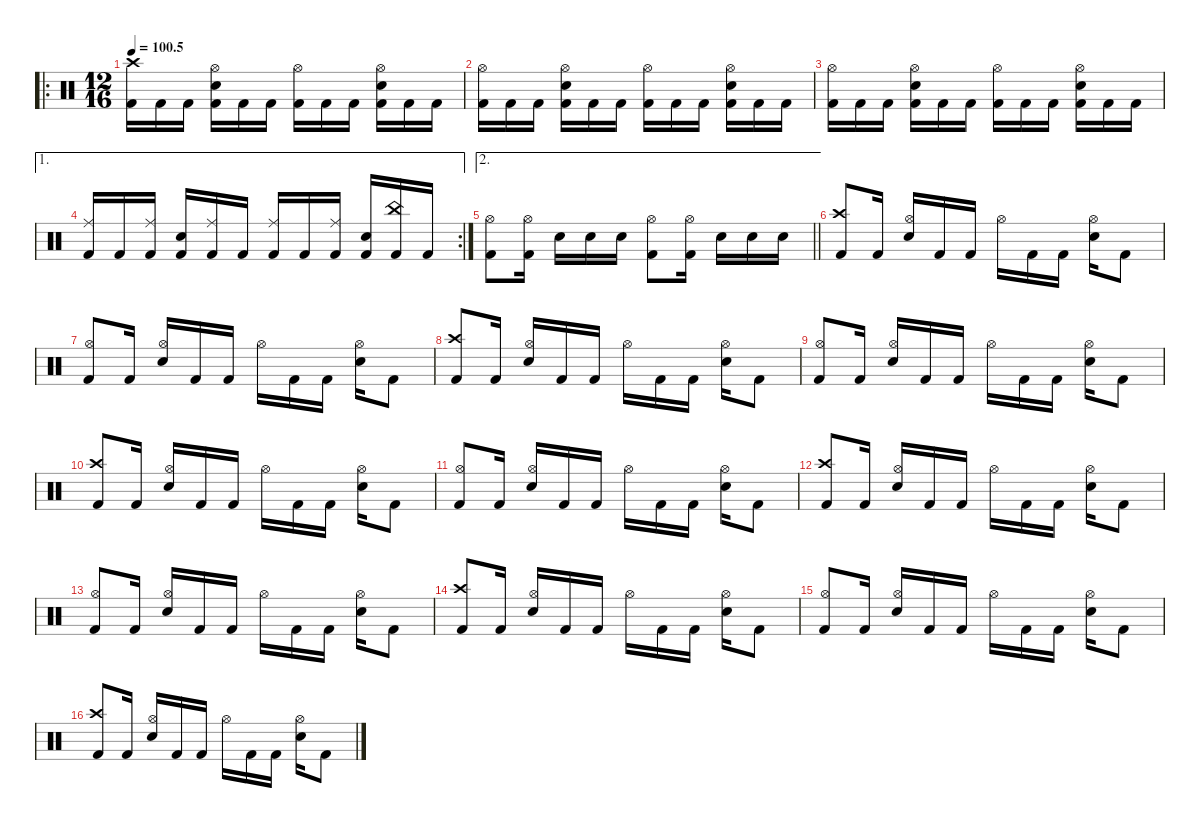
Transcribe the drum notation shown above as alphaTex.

\defaultSystemsLayout 4
\hideDynamics
\bracketExtendMode nobrackets
\singleTrackTrackNamePolicy hidden
\multiTrackTrackNamePolicy hidden
\firstSystemTrackNameMode fullname
\firstSystemTrackNameOrientation horizontal
\otherSystemsTrackNameOrientation horizontal
\track ("Drums" "drm.") {instrument percussion}
\staff {score}
\articulation defaults
\ro
\ts (12 16)
\tempo
100.5
\accidentals auto
\clef neutral
\ottava regular
\simile none
\ks c
("Crash high (hit)" "Kick (hit) 2").16{dy f beam Down} "Kick (hit) 2".16{beam Down} "Kick (hit) 2".16{beam Down} ("Hi-Hat (open)" "Snare (hit) 2" "Kick (hit) 2").16{beam Down} "Kick (hit) 2".16{beam Down} "Kick (hit) 2".16{beam Down} ("Hi-Hat (open)" "Kick (hit) 2").16{beam Down} "Kick (hit) 2".16{beam Down} "Kick (hit) 2".16{beam Down} ("Hi-Hat (open)" "Snare (hit) 2" "Kick (hit) 2").16{beam Down} "Kick (hit) 2".16{beam Down} "Kick (hit) 2".16{beam Down} |
("Hi-Hat (open)" "Kick (hit) 2").16{beam Down} "Kick (hit) 2".16{beam Down} "Kick (hit) 2".16{beam Down} ("Hi-Hat (open)" "Snare (hit) 2" "Kick (hit) 2").16{beam Down} "Kick (hit) 2".16{beam Down} "Kick (hit) 2".16{beam Down} ("Hi-Hat (open)" "Kick (hit) 2").16{beam Down} "Kick (hit) 2".16{beam Down} "Kick (hit) 2".16{beam Down} ("Hi-Hat (open)" "Snare (hit) 2" "Kick (hit) 2").16{beam Down} "Kick (hit) 2".16{beam Down} "Kick (hit) 2".16{beam Down} |
("Hi-Hat (open)" "Kick (hit) 2").16{beam Down} "Kick (hit) 2".16{beam Down} "Kick (hit) 2".16{beam Down} ("Hi-Hat (open)" "Snare (hit) 2" "Kick (hit) 2").16{beam Down} "Kick (hit) 2".16{beam Down} "Kick (hit) 2".16{beam Down} ("Hi-Hat (open)" "Kick (hit) 2").16{beam Down} "Kick (hit) 2".16{beam Down} "Kick (hit) 2".16{beam Down} ("Hi-Hat (open)" "Snare (hit) 2" "Kick (hit) 2").16{beam Down} "Kick (hit) 2".16{beam Down} "Kick (hit) 2".16{beam Down} |
\ae 1
\rc 2
("Ride (middle)" "Kick (hit) 2").16{beam Up} "Kick (hit) 2".16{beam Up} ("Ride (middle)" "Kick (hit) 2").16{beam Up} ("Snare (hit) 2" "Kick (hit) 2").16{beam Up} ("Ride (middle)" "Kick (hit) 2").16{beam Up} "Kick (hit) 2".16{beam Up} ("Ride (middle)" "Kick (hit) 2").16{beam Up} "Kick (hit) 2".16{beam Up} ("Ride (middle)" "Kick (hit) 2").16{beam Up} ("Snare (hit) 2" "Kick (hit) 2").16{beam Up} ("China (hit)" "Kick (hit) 2").16{beam Up} "Kick (hit) 2".16{beam Up} |
\ae 2
\barLineRight lightlight
("Hi-Hat (open)" "Kick (hit) 2").8{beam Down} ("Hi-Hat (open)" "Kick (hit) 2").16{beam Down} "Snare (hit) 2".16{beam Down} "Snare (hit) 2".16{beam Down} "Snare (hit) 2".16{beam Down} ("Hi-Hat (open)" "Kick (hit) 2").8{beam Down} ("Hi-Hat (open)" "Kick (hit) 2").16{beam Down} "Snare (hit) 2".16{beam Down} "Snare (hit) 2".16{beam Down} "Snare (hit) 2".16{beam Down} |
("Crash high (hit)" "Kick (hit) 2").8{beam Up} "Kick (hit) 2".16{dy ff beam Up} ("Hi-Hat (open)" "Snare (hit) 2").16{dy f beam Up} "Kick (hit) 2".16{dy ff beam Up} "Kick (hit) 2".16{beam Up} "Hi-Hat (open)".16{dy f beam Down} "Kick (hit) 2".16{dy ff beam Down} "Kick (hit) 2".16{beam Down} ("Hi-Hat (open)" "Snare (hit) 2").16{dy f beam Down} "Kick (hit) 2".8{dy ff beam Down} |
("Hi-Hat (open)" "Kick (hit) 2").8{dy f beam Up} "Kick (hit) 2".16{dy ff beam Up} ("Hi-Hat (open)" "Snare (hit) 2").16{dy f beam Up} "Kick (hit) 2".16{dy ff beam Up} "Kick (hit) 2".16{beam Up} "Hi-Hat (open)".16{dy f beam Down} "Kick (hit) 2".16{dy ff beam Down} "Kick (hit) 2".16{beam Down} ("Hi-Hat (open)" "Snare (hit) 2").16{dy f beam Down} "Kick (hit) 2".8{dy ff beam Down} |
("Crash high (hit)" "Kick (hit) 2").8{dy f beam Up} "Kick (hit) 2".16{dy ff beam Up} ("Hi-Hat (open)" "Snare (hit) 2").16{dy f beam Up} "Kick (hit) 2".16{dy ff beam Up} "Kick (hit) 2".16{beam Up} "Hi-Hat (open)".16{dy f beam Down} "Kick (hit) 2".16{dy ff beam Down} "Kick (hit) 2".16{beam Down} ("Hi-Hat (open)" "Snare (hit) 2").16{dy f beam Down} "Kick (hit) 2".8{dy ff beam Down} |
("Hi-Hat (open)" "Kick (hit) 2").8{dy f beam Up} "Kick (hit) 2".16{dy ff beam Up} ("Hi-Hat (open)" "Snare (hit) 2").16{dy f beam Up} "Kick (hit) 2".16{dy ff beam Up} "Kick (hit) 2".16{beam Up} "Hi-Hat (open)".16{dy f beam Down} "Kick (hit) 2".16{dy ff beam Down} "Kick (hit) 2".16{beam Down} ("Hi-Hat (open)" "Snare (hit) 2").16{dy f beam Down} "Kick (hit) 2".8{dy ff beam Down} |
("Crash high (hit)" "Kick (hit) 2").8{dy f beam Up} "Kick (hit) 2".16{dy ff beam Up} ("Hi-Hat (open)" "Snare (hit) 2").16{dy f beam Up} "Kick (hit) 2".16{dy ff beam Up} "Kick (hit) 2".16{beam Up} "Hi-Hat (open)".16{dy f beam Down} "Kick (hit) 2".16{dy ff beam Down} "Kick (hit) 2".16{beam Down} ("Hi-Hat (open)" "Snare (hit) 2").16{dy f beam Down} "Kick (hit) 2".8{dy ff beam Down} |
("Hi-Hat (open)" "Kick (hit) 2").8{dy f beam Up} "Kick (hit) 2".16{dy ff beam Up} ("Hi-Hat (open)" "Snare (hit) 2").16{dy f beam Up} "Kick (hit) 2".16{dy ff beam Up} "Kick (hit) 2".16{beam Up} "Hi-Hat (open)".16{dy f beam Down} "Kick (hit) 2".16{dy ff beam Down} "Kick (hit) 2".16{beam Down} ("Hi-Hat (open)" "Snare (hit) 2").16{dy f beam Down} "Kick (hit) 2".8{dy ff beam Down} |
("Crash high (hit)" "Kick (hit) 2").8{dy f beam Up} "Kick (hit) 2".16{dy ff beam Up} ("Hi-Hat (open)" "Snare (hit) 2").16{dy f beam Up} "Kick (hit) 2".16{dy ff beam Up} "Kick (hit) 2".16{beam Up} "Hi-Hat (open)".16{dy f beam Down} "Kick (hit) 2".16{dy ff beam Down} "Kick (hit) 2".16{beam Down} ("Hi-Hat (open)" "Snare (hit) 2").16{dy f beam Down} "Kick (hit) 2".8{dy ff beam Down} |
("Hi-Hat (open)" "Kick (hit) 2").8{dy f beam Up} "Kick (hit) 2".16{dy ff beam Up} ("Hi-Hat (open)" "Snare (hit) 2").16{dy f beam Up} "Kick (hit) 2".16{dy ff beam Up} "Kick (hit) 2".16{beam Up} "Hi-Hat (open)".16{dy f beam Down} "Kick (hit) 2".16{dy ff beam Down} "Kick (hit) 2".16{beam Down} ("Hi-Hat (open)" "Snare (hit) 2").16{dy f beam Down} "Kick (hit) 2".8{dy ff beam Down} |
("Crash high (hit)" "Kick (hit) 2").8{dy f beam Up} "Kick (hit) 2".16{dy ff beam Up} ("Hi-Hat (open)" "Snare (hit) 2").16{dy f beam Up} "Kick (hit) 2".16{dy ff beam Up} "Kick (hit) 2".16{beam Up} "Hi-Hat (open)".16{dy f beam Down} "Kick (hit) 2".16{dy ff beam Down} "Kick (hit) 2".16{beam Down} ("Hi-Hat (open)" "Snare (hit) 2").16{dy f beam Down} "Kick (hit) 2".8{dy ff beam Down} |
("Hi-Hat (open)" "Kick (hit) 2").8{dy f beam Up} "Kick (hit) 2".16{dy ff beam Up} ("Hi-Hat (open)" "Snare (hit) 2").16{dy f beam Up} "Kick (hit) 2".16{dy ff beam Up} "Kick (hit) 2".16{beam Up} "Hi-Hat (open)".16{dy f beam Down} "Kick (hit) 2".16{dy ff beam Down} "Kick (hit) 2".16{beam Down} ("Hi-Hat (open)" "Snare (hit) 2").16{dy f beam Down} "Kick (hit) 2".8{dy ff beam Down} |
("Crash high (hit)" "Kick (hit) 2").8{dy f beam Up} "Kick (hit) 2".16{dy ff beam Up} ("Hi-Hat (open)" "Snare (hit) 2").16{dy f beam Up} "Kick (hit) 2".16{dy ff beam Up} "Kick (hit) 2".16{beam Up} "Hi-Hat (open)".16{dy f beam Down} "Kick (hit) 2".16{dy ff beam Down} "Kick (hit) 2".16{beam Down} ("Hi-Hat (open)" "Snare (hit) 2").16{dy f beam Down} "Kick (hit) 2".8{dy ff beam Down}
